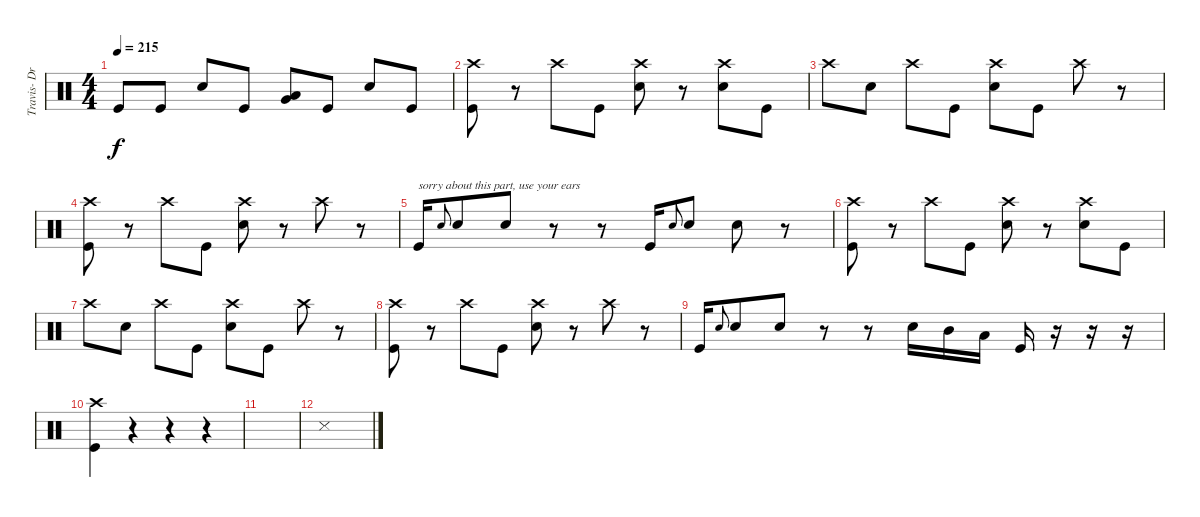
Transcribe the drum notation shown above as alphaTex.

\track ("Travis- Drums" "Travis- Dr") {instrument percussion}
\staff {score}
\articulation defaults
\ts (4 4)
\tempo 215
\clef neutral
\ks c "Kick (hit)".8{dy f} "Kick (hit)".8 "Electric Snare (hit)".8 "Kick (hit)".8
("Low Tom (hit)" "Very Low Tom (hit)").8 "Kick (hit)".8 "Electric Snare (hit)".8 "Kick (hit)".8 |
("Crash high (hit)" "Kick (hit)").8 r.8 "Crash high (hit)".8 "Kick (hit)".8 ("Crash high (hit)" "Electric Snare (hit)").8 r.8 ("Crash high (hit)" "Electric Snare (hit)").8 "Kick (hit)".8 |
"Crash high (hit)".8 "Electric Snare (hit)".8 "Crash high (hit)".8 "Kick (hit)".8 ("Crash high (hit)" "Electric Snare (hit)").8 "Kick (hit)".8 "Crash high (hit)".8 r.8 |
("Crash high (hit)" "Kick (hit)").8 r.8 "Crash high (hit)".8 "Kick (hit)".8 ("Crash high (hit)" "Electric Snare (hit)").8 r.8 "Crash high (hit)".8 r.8 |
"Kick (hit)".16{txt "sorry about this part, use your ears"} "Electric Snare (hit)".8{gr onbeat} "Electric Snare (hit)".8 "Electric Snare (hit)".8 r.8 r.8 "Kick (hit)".16 "Electric Snare (hit)".8{gr onbeat} "Electric Snare (hit)".8 "Electric Snare (hit)".8 r.8 |
("Crash high (hit)" "Kick (hit)").8 r.8 "Crash high (hit)".8 "Kick (hit)".8 ("Crash high (hit)" "Electric Snare (hit)").8 r.8 ("Crash high (hit)" "Electric Snare (hit)").8 "Kick (hit)".8 |
"Crash high (hit)".8 "Electric Snare (hit)".8 "Crash high (hit)".8 "Kick (hit)".8 ("Crash high (hit)" "Electric Snare (hit)").8 "Kick (hit)".8 "Crash high (hit)".8 r.8 |
("Crash high (hit)" "Kick (hit)").8 r.8 "Crash high (hit)".8 "Kick (hit)".8 ("Crash high (hit)" "Electric Snare (hit)").8 r.8 "Crash high (hit)".8 r.8 |
"Kick (hit)".16 "Electric Snare (hit)".8{gr onbeat} "Electric Snare (hit)".8 "Electric Snare (hit)".8 r.8 r.8 "Electric Snare (hit)".16 "Mid Tom (hit)".16 "Low Tom (hit)".16 "Kick (hit)".16 r.16 r.16 r.16 |
("Crash high (hit)" "Kick (hit)").4 r.4 r.4 r.4 |
|
"Snare (side stick) 3".1
